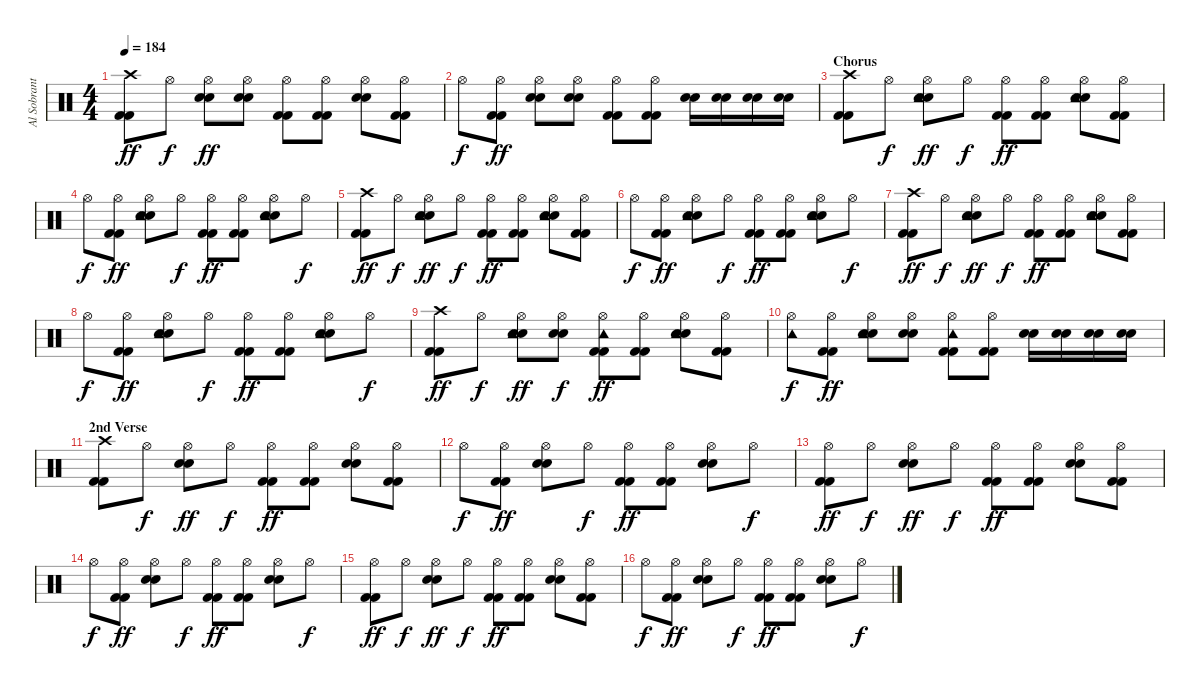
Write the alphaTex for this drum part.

\track ("Al Sobrante (Drums)" "Al Sobrant") {instrument percussion}
\staff {score}
\articulation defaults
\ts (4 4)
\tempo 184
\clef neutral
\ks c
("Kick (hit) 2" "Kick (hit) 2" "Crash high (hit)").8{dy ff} "Hi-Hat (open)".8{dy f} ("Electric Snare (hit)" "Electric Snare (hit)" "Hi-Hat (open)").8{dy ff} ("Electric Snare (hit)" "Electric Snare (hit)" "Hi-Hat (open)").8 ("Kick (hit) 2" "Kick (hit) 2" "Hi-Hat (open)").8 ("Kick (hit) 2" "Kick (hit) 2" "Hi-Hat (open)").8 ("Electric Snare (hit)" "Electric Snare (hit)" "Hi-Hat (open)").8 ("Kick (hit) 2" "Kick (hit) 2" "Hi-Hat (open)").8 |
"Hi-Hat (open)".8{dy f} ("Kick (hit) 2" "Kick (hit) 2" "Hi-Hat (open)").8{dy ff} ("Electric Snare (hit)" "Electric Snare (hit)" "Hi-Hat (open)").8 ("Electric Snare (hit)" "Electric Snare (hit)" "Hi-Hat (open)").8 ("Kick (hit) 2" "Kick (hit) 2" "Hi-Hat (open)").8 ("Kick (hit) 2" "Kick (hit) 2" "Hi-Hat (open)").8 ("Electric Snare (hit)" "Electric Snare (hit)").16 ("Electric Snare (hit)" "Electric Snare (hit)").16 ("Electric Snare (hit)" "Electric Snare (hit)").16 ("Electric Snare (hit)" "Electric Snare (hit)").16 |
\section ("" "Chorus")
("Kick (hit) 2" "Kick (hit) 2" "Crash high (hit)").8 "Hi-Hat (open)".8{dy f} ("Electric Snare (hit)" "Electric Snare (hit)" "Tambourine (hit)" "Hi-Hat (open)").8{dy ff} "Hi-Hat (open)".8{dy f} ("Kick (hit) 2" "Kick (hit) 2" "Hi-Hat (open)").8{dy ff} ("Kick (hit) 2" "Kick (hit) 2" "Hi-Hat (open)").8 ("Electric Snare (hit)" "Electric Snare (hit)" "Tambourine (hit)" "Hi-Hat (open)").8 ("Kick (hit) 2" "Kick (hit) 2" "Hi-Hat (open)").8 |
"Hi-Hat (open)".8{dy f} ("Kick (hit) 2" "Kick (hit) 2" "Hi-Hat (open)").8{dy ff} ("Electric Snare (hit)" "Electric Snare (hit)" "Tambourine (hit)" "Hi-Hat (open)").8 "Hi-Hat (open)".8{dy f} ("Kick (hit) 2" "Kick (hit) 2" "Hi-Hat (open)").8{dy ff} ("Kick (hit) 2" "Kick (hit) 2" "Hi-Hat (open)").8 ("Electric Snare (hit)" "Electric Snare (hit)" "Tambourine (hit)" "Hi-Hat (open)").8 "Hi-Hat (open)".8{dy f} |
("Kick (hit) 2" "Kick (hit) 2" "Crash high (hit)").8{dy ff} "Hi-Hat (open)".8{dy f} ("Electric Snare (hit)" "Electric Snare (hit)" "Tambourine (hit)" "Hi-Hat (open)").8{dy ff} "Hi-Hat (open)".8{dy f} ("Kick (hit) 2" "Kick (hit) 2" "Hi-Hat (open)").8{dy ff} ("Kick (hit) 2" "Kick (hit) 2" "Hi-Hat (open)").8 ("Electric Snare (hit)" "Electric Snare (hit)" "Tambourine (hit)" "Hi-Hat (open)").8 ("Kick (hit) 2" "Kick (hit) 2" "Hi-Hat (open)").8 |
"Hi-Hat (open)".8{dy f} ("Kick (hit) 2" "Kick (hit) 2" "Hi-Hat (open)").8{dy ff} ("Electric Snare (hit)" "Electric Snare (hit)" "Tambourine (hit)" "Hi-Hat (open)").8 "Hi-Hat (open)".8{dy f} ("Kick (hit) 2" "Kick (hit) 2" "Hi-Hat (open)").8{dy ff} ("Kick (hit) 2" "Kick (hit) 2" "Hi-Hat (open)").8 ("Electric Snare (hit)" "Electric Snare (hit)" "Tambourine (hit)" "Hi-Hat (open)").8 "Hi-Hat (open)".8{dy f} |
("Kick (hit) 2" "Kick (hit) 2" "Crash high (hit)").8{dy ff} "Hi-Hat (open)".8{dy f} ("Electric Snare (hit)" "Electric Snare (hit)" "Tambourine (hit)" "Hi-Hat (open)").8{dy ff} "Hi-Hat (open)".8{dy f} ("Kick (hit) 2" "Kick (hit) 2" "Hi-Hat (open)").8{dy ff} ("Kick (hit) 2" "Kick (hit) 2" "Hi-Hat (open)").8 ("Electric Snare (hit)" "Electric Snare (hit)" "Tambourine (hit)" "Hi-Hat (open)").8 ("Kick (hit) 2" "Kick (hit) 2" "Hi-Hat (open)").8 |
"Hi-Hat (open)".8{dy f} ("Kick (hit) 2" "Kick (hit) 2" "Hi-Hat (open)").8{dy ff} ("Electric Snare (hit)" "Electric Snare (hit)" "Tambourine (hit)" "Hi-Hat (open)").8 "Hi-Hat (open)".8{dy f} ("Kick (hit) 2" "Kick (hit) 2" "Hi-Hat (open)").8{dy ff} ("Kick (hit) 2" "Kick (hit) 2" "Hi-Hat (open)").8 ("Electric Snare (hit)" "Electric Snare (hit)" "Tambourine (hit)" "Hi-Hat (open)").8 "Hi-Hat (open)".8{dy f} |
("Kick (hit) 2" "Kick (hit) 2" "Crash high (hit)").8{dy ff} "Hi-Hat (open)".8{dy f} ("Electric Snare (hit)" "Electric Snare (hit)" "Tambourine (hit)" "Hi-Hat (open)").8{dy ff} ("Electric Snare (hit)" "Electric Snare (hit)" "Hi-Hat (open)").8{dy f} ("Kick (hit) 2" "Kick (hit) 2" "Tambourine (hit)" "Hi-Hat (open)").8{dy ff} ("Kick (hit) 2" "Kick (hit) 2" "Hi-Hat (open)").8 ("Electric Snare (hit)" "Electric Snare (hit)" "Tambourine (hit)" "Hi-Hat (open)").8 ("Kick (hit) 2" "Kick (hit) 2" "Hi-Hat (open)").8 |
("Tambourine (hit)" "Hi-Hat (open)").8{dy f} ("Kick (hit) 2" "Kick (hit) 2" "Hi-Hat (open)").8{dy ff} ("Electric Snare (hit)" "Electric Snare (hit)" "Tambourine (hit)" "Hi-Hat (open)").8 ("Electric Snare (hit)" "Electric Snare (hit)" "Hi-Hat (open)").8 ("Kick (hit) 2" "Kick (hit) 2" "Tambourine (hit)" "Hi-Hat (open)").8 ("Kick (hit) 2" "Kick (hit) 2" "Hi-Hat (open)").8 ("Electric Snare (hit)" "Electric Snare (hit)").16 ("Electric Snare (hit)" "Electric Snare (hit)").16 ("Electric Snare (hit)" "Electric Snare (hit)").16 ("Electric Snare (hit)" "Electric Snare (hit)").16 |
\section ("" "2nd Verse")
("Kick (hit) 2" "Kick (hit) 2" "Crash high (hit)").8 "Hi-Hat (open)".8{dy f} ("Electric Snare (hit)" "Electric Snare (hit)" "Hi-Hat (open)").8{dy ff} "Hi-Hat (open)".8{dy f} ("Kick (hit) 2" "Kick (hit) 2" "Hi-Hat (open)").8{dy ff} ("Kick (hit) 2" "Kick (hit) 2" "Hi-Hat (open)").8 ("Electric Snare (hit)" "Electric Snare (hit)" "Hi-Hat (open)").8 ("Kick (hit) 2" "Kick (hit) 2" "Hi-Hat (open)").8 |
"Hi-Hat (open)".8{dy f} ("Kick (hit) 2" "Kick (hit) 2" "Hi-Hat (open)").8{dy ff} ("Electric Snare (hit)" "Electric Snare (hit)" "Hi-Hat (open)").8 "Hi-Hat (open)".8{dy f} ("Kick (hit) 2" "Kick (hit) 2" "Hi-Hat (open)").8{dy ff} ("Kick (hit) 2" "Kick (hit) 2" "Hi-Hat (open)").8 ("Electric Snare (hit)" "Electric Snare (hit)" "Hi-Hat (open)").8 "Hi-Hat (open)".8{dy f} |
("Kick (hit) 2" "Kick (hit) 2" "Hi-Hat (open)").8{dy ff} "Hi-Hat (open)".8{dy f} ("Electric Snare (hit)" "Electric Snare (hit)" "Hi-Hat (open)").8{dy ff} "Hi-Hat (open)".8{dy f} ("Kick (hit) 2" "Kick (hit) 2" "Hi-Hat (open)").8{dy ff} ("Kick (hit) 2" "Kick (hit) 2" "Hi-Hat (open)").8 ("Electric Snare (hit)" "Electric Snare (hit)" "Hi-Hat (open)").8 ("Kick (hit) 2" "Kick (hit) 2" "Hi-Hat (open)").8 |
"Hi-Hat (open)".8{dy f} ("Kick (hit) 2" "Kick (hit) 2" "Hi-Hat (open)").8{dy ff} ("Electric Snare (hit)" "Electric Snare (hit)" "Hi-Hat (open)").8 "Hi-Hat (open)".8{dy f} ("Kick (hit) 2" "Kick (hit) 2" "Hi-Hat (open)").8{dy ff} ("Kick (hit) 2" "Kick (hit) 2" "Hi-Hat (open)").8 ("Electric Snare (hit)" "Electric Snare (hit)" "Hi-Hat (open)").8 "Hi-Hat (open)".8{dy f} |
("Kick (hit) 2" "Kick (hit) 2" "Hi-Hat (open)").8{dy ff} "Hi-Hat (open)".8{dy f} ("Electric Snare (hit)" "Electric Snare (hit)" "Hi-Hat (open)").8{dy ff} "Hi-Hat (open)".8{dy f} ("Kick (hit) 2" "Kick (hit) 2" "Hi-Hat (open)").8{dy ff} ("Kick (hit) 2" "Kick (hit) 2" "Hi-Hat (open)").8 ("Electric Snare (hit)" "Electric Snare (hit)" "Hi-Hat (open)").8 ("Kick (hit) 2" "Kick (hit) 2" "Hi-Hat (open)").8 |
"Hi-Hat (open)".8{dy f} ("Kick (hit) 2" "Kick (hit) 2" "Hi-Hat (open)").8{dy ff} ("Electric Snare (hit)" "Electric Snare (hit)" "Hi-Hat (open)").8 "Hi-Hat (open)".8{dy f} ("Kick (hit) 2" "Kick (hit) 2" "Hi-Hat (open)").8{dy ff} ("Kick (hit) 2" "Kick (hit) 2" "Hi-Hat (open)").8 ("Electric Snare (hit)" "Electric Snare (hit)" "Hi-Hat (open)").8 "Hi-Hat (open)".8{dy f}
